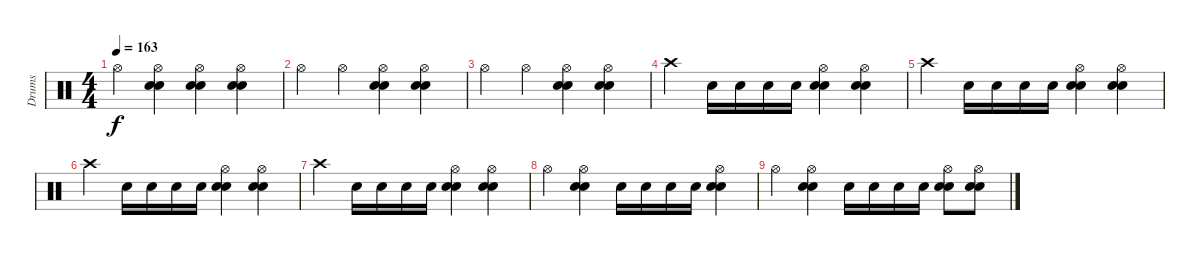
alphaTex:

\track ("Drums" "Drums") {instrument percussion}
\staff {score}
\articulation defaults
\ts (4 4)
\tempo 163
\clef neutral
\ks c "Hi-Hat (open)".4{dy f}
("Hi-Hat (open)" "Electric Snare (hit)" "Electric Snare (hit)").4 ("Hi-Hat (open)" "Electric Snare (hit)" "Electric Snare (hit)").4 ("Hi-Hat (open)" "Electric Snare (hit)" "Electric Snare (hit)").4 |
"Hi-Hat (open)".4 "Hi-Hat (open)".4 ("Hi-Hat (open)" "Electric Snare (hit)" "Electric Snare (hit)").4 ("Hi-Hat (open)" "Electric Snare (hit)" "Electric Snare (hit)").4 |
"Hi-Hat (open)".4 "Hi-Hat (open)".4 ("Hi-Hat (open)" "Electric Snare (hit)" "Electric Snare (hit)").4 ("Hi-Hat (open)" "Electric Snare (hit)" "Electric Snare (hit)").4 |
"Crash high (hit)".4 "Electric Snare (hit)".16 "Electric Snare (hit)".16 "Electric Snare (hit)".16 "Electric Snare (hit)".16 ("Hi-Hat (open)" "Electric Snare (hit)" "Electric Snare (hit)").4 ("Hi-Hat (open)" "Electric Snare (hit)" "Electric Snare (hit)").4 |
"Crash high (hit)".4 "Electric Snare (hit)".16 "Electric Snare (hit)".16 "Electric Snare (hit)".16 "Electric Snare (hit)".16 ("Hi-Hat (open)" "Electric Snare (hit)" "Electric Snare (hit)").4 ("Hi-Hat (open)" "Electric Snare (hit)" "Electric Snare (hit)").4 |
"Crash high (hit)".4 "Electric Snare (hit)".16 "Electric Snare (hit)".16 "Electric Snare (hit)".16 "Electric Snare (hit)".16 ("Hi-Hat (open)" "Electric Snare (hit)" "Electric Snare (hit)").4 ("Hi-Hat (open)" "Electric Snare (hit)" "Electric Snare (hit)").4 |
"Crash high (hit)".4 "Electric Snare (hit)".16 "Electric Snare (hit)".16 "Electric Snare (hit)".16 "Electric Snare (hit)".16 ("Hi-Hat (open)" "Electric Snare (hit)" "Electric Snare (hit)").4 ("Hi-Hat (open)" "Electric Snare (hit)" "Electric Snare (hit)").4 |
"Hi-Hat (open)".4 ("Hi-Hat (open)" "Electric Snare (hit)" "Electric Snare (hit)").4 "Electric Snare (hit)".16 "Electric Snare (hit)".16 "Electric Snare (hit)".16 "Electric Snare (hit)".16 ("Hi-Hat (open)" "Electric Snare (hit)" "Electric Snare (hit)").4 |
"Hi-Hat (open)".4 ("Hi-Hat (open)" "Electric Snare (hit)" "Electric Snare (hit)").4 "Electric Snare (hit)".16 "Electric Snare (hit)".16 "Electric Snare (hit)".16 "Electric Snare (hit)".16 ("Hi-Hat (open)" "Electric Snare (hit)" "Electric Snare (hit)").8 ("Hi-Hat (open)" "Electric Snare (hit)" "Electric Snare (hit)").8
